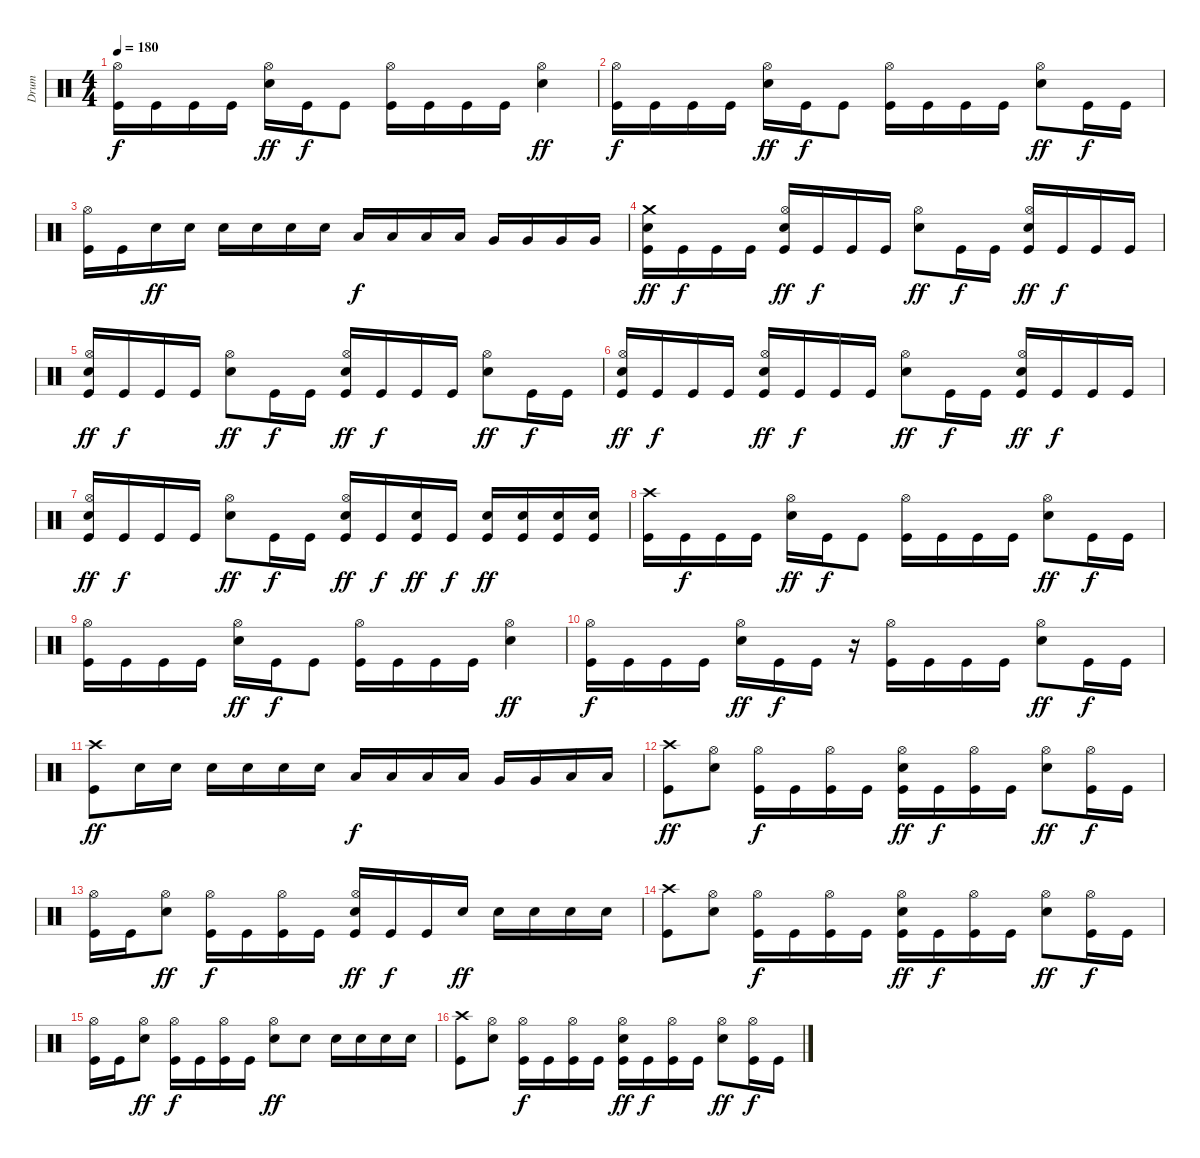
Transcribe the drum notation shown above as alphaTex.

\track ("Drum" "Drum") {instrument percussion}
\staff {score}
\articulation defaults
\ts (4 4)
\tempo 180
\clef neutral
\ks c
("Kick (hit)" "Hi-Hat (open)").16{dy f} "Kick (hit)".16 "Kick (hit)".16 "Kick (hit)".16 ("Electric Snare (hit)" "Hi-Hat (open)").16{dy ff} "Kick (hit)".16{dy f} "Kick (hit)".8 ("Kick (hit)" "Hi-Hat (open)").16 "Kick (hit)".16 "Kick (hit)".16 "Kick (hit)".16 ("Electric Snare (hit)" "Hi-Hat (open)").4{dy ff} |
("Kick (hit)" "Hi-Hat (open)").16{dy f} "Kick (hit)".16 "Kick (hit)".16 "Kick (hit)".16 ("Electric Snare (hit)" "Hi-Hat (open)").16{dy ff} "Kick (hit)".16{dy f} "Kick (hit)".8 ("Kick (hit)" "Hi-Hat (open)").16 "Kick (hit)".16 "Kick (hit)".16 "Kick (hit)".16 ("Electric Snare (hit)" "Hi-Hat (open)").8{dy ff} "Kick (hit)".16{dy f} "Kick (hit)".16 |
("Kick (hit)" "Hi-Hat (open)").16 "Kick (hit)".16 "Electric Snare (hit)".16{dy ff} "Electric Snare (hit)".16 "Electric Snare (hit)".16 "Electric Snare (hit)".16 "Electric Snare (hit)".16 "Electric Snare (hit)".16 "Low Tom (hit)".16{dy f} "Low Tom (hit)".16 "Low Tom (hit)".16 "Low Tom (hit)".16 "Very Low Tom (hit)".16 "Very Low Tom (hit)".16 "Very Low Tom (hit)".16 "Very Low Tom (hit)".16 |
("Kick (hit)" "Electric Snare (hit)" "Crash medium (hit)").16{dy ff} "Kick (hit)".16{dy f} "Kick (hit)".16 "Kick (hit)".16 ("Kick (hit)" "Electric Snare (hit)" "Hi-Hat (open)").16{dy ff} "Kick (hit)".16{dy f} "Kick (hit)".16 "Kick (hit)".16 ("Electric Snare (hit)" "Hi-Hat (open)").8{dy ff} "Kick (hit)".16{dy f} "Kick (hit)".16 ("Kick (hit)" "Electric Snare (hit)" "Hi-Hat (open)").16{dy ff} "Kick (hit)".16{dy f} "Kick (hit)".16 "Kick (hit)".16 |
("Kick (hit)" "Electric Snare (hit)" "Hi-Hat (open)").16{dy ff} "Kick (hit)".16{dy f} "Kick (hit)".16 "Kick (hit)".16 ("Electric Snare (hit)" "Hi-Hat (open)").8{dy ff} "Kick (hit)".16{dy f} "Kick (hit)".16 ("Kick (hit)" "Electric Snare (hit)" "Hi-Hat (open)").16{dy ff} "Kick (hit)".16{dy f} "Kick (hit)".16 "Kick (hit)".16 ("Electric Snare (hit)" "Hi-Hat (open)").8{dy ff} "Kick (hit)".16{dy f} "Kick (hit)".16 |
("Kick (hit)" "Electric Snare (hit)" "Hi-Hat (open)").16{dy ff} "Kick (hit)".16{dy f} "Kick (hit)".16 "Kick (hit)".16 ("Kick (hit)" "Electric Snare (hit)" "Hi-Hat (open)").16{dy ff} "Kick (hit)".16{dy f} "Kick (hit)".16 "Kick (hit)".16 ("Electric Snare (hit)" "Hi-Hat (open)").8{dy ff} "Kick (hit)".16{dy f} "Kick (hit)".16 ("Kick (hit)" "Electric Snare (hit)" "Hi-Hat (open)").16{dy ff} "Kick (hit)".16{dy f} "Kick (hit)".16 "Kick (hit)".16 |
("Kick (hit)" "Electric Snare (hit)" "Hi-Hat (open)").16{dy ff} "Kick (hit)".16{dy f} "Kick (hit)".16 "Kick (hit)".16 ("Electric Snare (hit)" "Hi-Hat (open)").8{dy ff} "Kick (hit)".16{dy f} "Kick (hit)".16 ("Kick (hit)" "Electric Snare (hit)" "Hi-Hat (open)").16{dy ff} "Kick (hit)".16{dy f} ("Kick (hit)" "Electric Snare (hit)").16{dy ff} "Kick (hit)".16{dy f} ("Kick (hit)" "Electric Snare (hit)").16{dy ff} ("Kick (hit)" "Electric Snare (hit)").16 ("Kick (hit)" "Electric Snare (hit)").16 ("Kick (hit)" "Electric Snare (hit)").16 |
("Kick (hit)" "Crash high (hit)").16 "Kick (hit)".16{dy f} "Kick (hit)".16 "Kick (hit)".16 ("Electric Snare (hit)" "Hi-Hat (open)").16{dy ff} "Kick (hit)".16{dy f} "Kick (hit)".8 ("Kick (hit)" "Hi-Hat (open)").16 "Kick (hit)".16 "Kick (hit)".16 "Kick (hit)".16 ("Electric Snare (hit)" "Hi-Hat (open)").8{dy ff} "Kick (hit)".16{dy f} "Kick (hit)".16 |
("Kick (hit)" "Hi-Hat (open)").16 "Kick (hit)".16 "Kick (hit)".16 "Kick (hit)".16 ("Electric Snare (hit)" "Hi-Hat (open)").16{dy ff} "Kick (hit)".16{dy f} "Kick (hit)".8 ("Kick (hit)" "Hi-Hat (open)").16 "Kick (hit)".16 "Kick (hit)".16 "Kick (hit)".16 ("Electric Snare (hit)" "Hi-Hat (open)").4{dy ff} |
("Kick (hit)" "Hi-Hat (open)").16{dy f} "Kick (hit)".16 "Kick (hit)".16 "Kick (hit)".16 ("Electric Snare (hit)" "Hi-Hat (open)").16{dy ff} "Kick (hit)".16{dy f} "Kick (hit)".16 r.16 ("Kick (hit)" "Hi-Hat (open)").16 "Kick (hit)".16 "Kick (hit)".16 "Kick (hit)".16 ("Electric Snare (hit)" "Hi-Hat (open)").8{dy ff} "Kick (hit)".16{dy f} "Kick (hit)".16 |
("Kick (hit)" "Crash high (hit)").8{dy ff} "Electric Snare (hit)".16 "Electric Snare (hit)".16 "Electric Snare (hit)".16 "Electric Snare (hit)".16 "Electric Snare (hit)".16 "Electric Snare (hit)".16 "Low Tom (hit)".16{dy f} "Low Tom (hit)".16 "Low Tom (hit)".16 "Low Tom (hit)".16 "Very Low Tom (hit)".16 "Very Low Tom (hit)".16 "Low Floor Tom (hit)".16 "Low Floor Tom (hit)".16 |
("Kick (hit)" "Crash high (hit)").8{dy ff} ("Electric Snare (hit)" "Hi-Hat (open)").8 ("Kick (hit)" "Hi-Hat (open)").16{dy f} "Kick (hit)".16 ("Kick (hit)" "Hi-Hat (open)").16 "Kick (hit)".16 ("Kick (hit)" "Electric Snare (hit)" "Hi-Hat (open)").16{dy ff} "Kick (hit)".16{dy f} ("Kick (hit)" "Hi-Hat (open)").16 "Kick (hit)".16 ("Electric Snare (hit)" "Hi-Hat (open)").8{dy ff} ("Kick (hit)" "Hi-Hat (open)").16{dy f} "Kick (hit)".16 |
("Kick (hit)" "Hi-Hat (open)").16 "Kick (hit)".16 ("Electric Snare (hit)" "Hi-Hat (open)").8{dy ff} ("Kick (hit)" "Hi-Hat (open)").16{dy f} "Kick (hit)".16 ("Kick (hit)" "Hi-Hat (open)").16 "Kick (hit)".16 ("Kick (hit)" "Electric Snare (hit)" "Hi-Hat (open)").16{dy ff} "Kick (hit)".16{dy f} "Kick (hit)".16 "Electric Snare (hit)".16{dy ff} "Electric Snare (hit)".16 "Electric Snare (hit)".16 "Electric Snare (hit)".16 "Electric Snare (hit)".16 |
("Kick (hit)" "Crash high (hit)").8 ("Electric Snare (hit)" "Hi-Hat (open)").8 ("Kick (hit)" "Hi-Hat (open)").16{dy f} "Kick (hit)".16 ("Kick (hit)" "Hi-Hat (open)").16 "Kick (hit)".16 ("Kick (hit)" "Electric Snare (hit)" "Hi-Hat (open)").16{dy ff} "Kick (hit)".16{dy f} ("Kick (hit)" "Hi-Hat (open)").16 "Kick (hit)".16 ("Electric Snare (hit)" "Hi-Hat (open)").8{dy ff} ("Kick (hit)" "Hi-Hat (open)").16{dy f} "Kick (hit)".16 |
("Kick (hit)" "Hi-Hat (open)").16 "Kick (hit)".16 ("Electric Snare (hit)" "Hi-Hat (open)").8{dy ff} ("Kick (hit)" "Hi-Hat (open)").16{dy f} "Kick (hit)".16 ("Kick (hit)" "Hi-Hat (open)").16 "Kick (hit)".16 ("Electric Snare (hit)" "Hi-Hat (open)").8{dy ff} "Electric Snare (hit)".8 "Electric Snare (hit)".16 "Electric Snare (hit)".16 "Electric Snare (hit)".16 "Electric Snare (hit)".16 |
("Kick (hit)" "Crash high (hit)").8 ("Electric Snare (hit)" "Hi-Hat (open)").8 ("Kick (hit)" "Hi-Hat (open)").16{dy f} "Kick (hit)".16 ("Kick (hit)" "Hi-Hat (open)").16 "Kick (hit)".16 ("Kick (hit)" "Electric Snare (hit)" "Hi-Hat (open)").16{dy ff} "Kick (hit)".16{dy f} ("Kick (hit)" "Hi-Hat (open)").16 "Kick (hit)".16 ("Electric Snare (hit)" "Hi-Hat (open)").8{dy ff} ("Kick (hit)" "Hi-Hat (open)").16{dy f} "Kick (hit)".16
